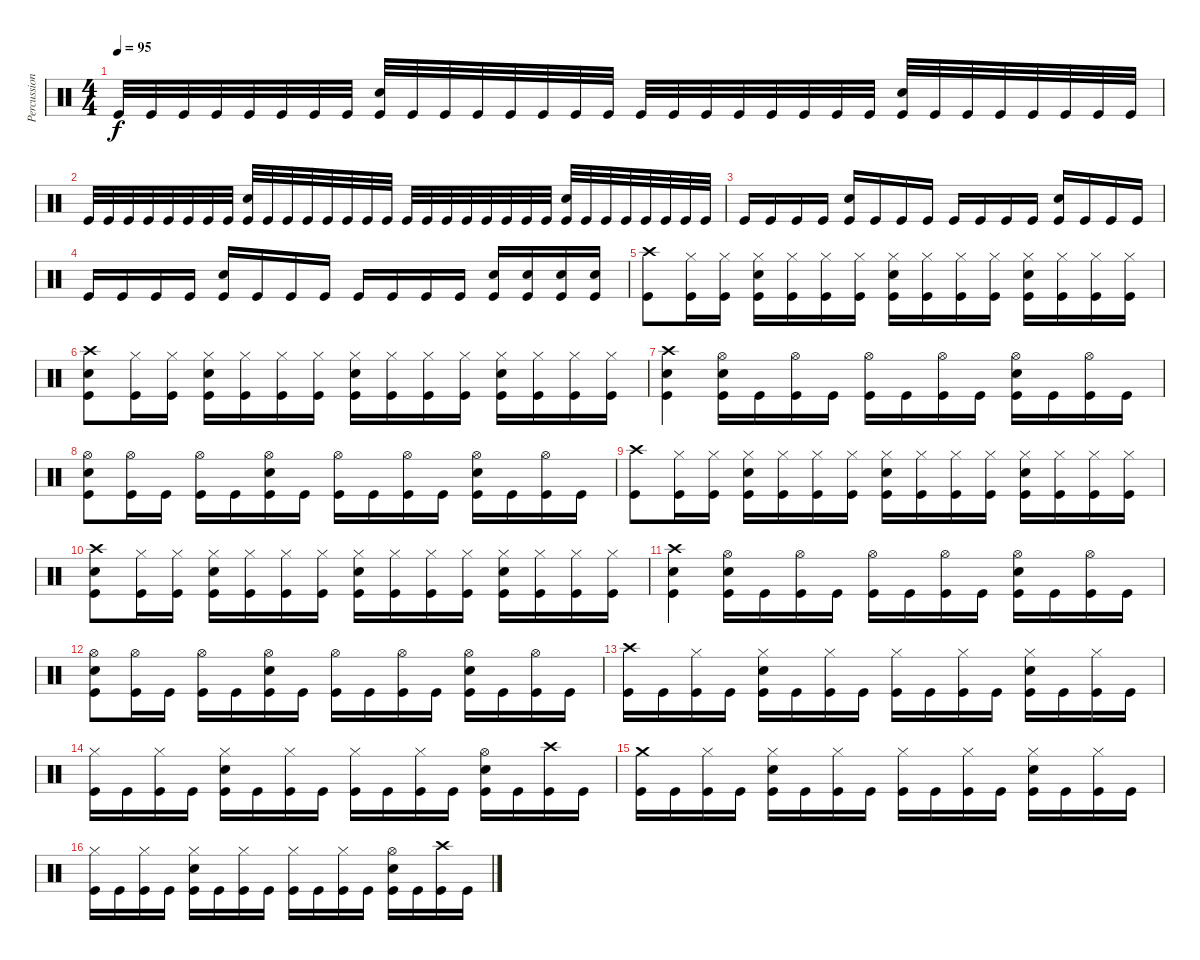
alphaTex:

\track ("Percussion" "Percussion") {instrument percussion}
\staff {score}
\articulation defaults
\ts (4 4)
\tempo 95
\clef neutral
\ks c "Kick (hit)".32{dy f} "Kick (hit)".32 "Kick (hit)".32 "Kick (hit)".32 "Kick (hit)".32 "Kick (hit)".32 "Kick (hit)".32 "Kick (hit)".32
("Electric Snare (hit)" "Kick (hit)").32 "Kick (hit)".32 "Kick (hit)".32 "Kick (hit)".32 "Kick (hit)".32 "Kick (hit)".32 "Kick (hit)".32 "Kick (hit)".32 "Kick (hit)".32 "Kick (hit)".32 "Kick (hit)".32 "Kick (hit)".32 "Kick (hit)".32 "Kick (hit)".32 "Kick (hit)".32 "Kick (hit)".32 ("Electric Snare (hit)" "Kick (hit)").32 "Kick (hit)".32 "Kick (hit)".32 "Kick (hit)".32 "Kick (hit)".32 "Kick (hit)".32 "Kick (hit)".32 "Kick (hit)".32 |
"Kick (hit)".32 "Kick (hit)".32 "Kick (hit)".32 "Kick (hit)".32 "Kick (hit)".32 "Kick (hit)".32 "Kick (hit)".32 "Kick (hit)".32 ("Electric Snare (hit)" "Kick (hit)").32 "Kick (hit)".32 "Kick (hit)".32 "Kick (hit)".32 "Kick (hit)".32 "Kick (hit)".32 "Kick (hit)".32 "Kick (hit)".32 "Kick (hit)".32 "Kick (hit)".32 "Kick (hit)".32 "Kick (hit)".32 "Kick (hit)".32 "Kick (hit)".32 "Kick (hit)".32 "Kick (hit)".32 ("Electric Snare (hit)" "Kick (hit)").32 "Kick (hit)".32 "Kick (hit)".32 "Kick (hit)".32 "Kick (hit)".32 "Kick (hit)".32 "Kick (hit)".32 "Kick (hit)".32 |
"Kick (hit)".16 "Kick (hit)".16 "Kick (hit)".16 "Kick (hit)".16 ("Electric Snare (hit)" "Kick (hit)").16 "Kick (hit)".16 "Kick (hit)".16 "Kick (hit)".16 "Kick (hit)".16 "Kick (hit)".16 "Kick (hit)".16 "Kick (hit)".16 ("Electric Snare (hit)" "Kick (hit)").16 "Kick (hit)".16 "Kick (hit)".16 "Kick (hit)".16 |
"Kick (hit)".16 "Kick (hit)".16 "Kick (hit)".16 "Kick (hit)".16 ("Electric Snare (hit)" "Kick (hit)").16 "Kick (hit)".16 "Kick (hit)".16 "Kick (hit)".16 "Kick (hit)".16 "Kick (hit)".16 "Kick (hit)".16 "Kick (hit)".16 ("Electric Snare (hit)" "Kick (hit)").16 ("Electric Snare (hit)" "Kick (hit)").16 ("Electric Snare (hit)" "Kick (hit)").16 ("Electric Snare (hit)" "Kick (hit)").16 |
("Crash high (hit)" "Kick (hit)").8 ("Hi-Hat (closed)" "Kick (hit)").16 ("Hi-Hat (closed)" "Kick (hit)").16 ("Hi-Hat (closed)" "Electric Snare (hit)" "Kick (hit)").16 ("Hi-Hat (closed)" "Kick (hit)").16 ("Hi-Hat (closed)" "Kick (hit)").16 ("Hi-Hat (closed)" "Kick (hit)").16 ("Hi-Hat (closed)" "Electric Snare (hit)" "Kick (hit)").16 ("Hi-Hat (closed)" "Kick (hit)").16 ("Hi-Hat (closed)" "Kick (hit)").16 ("Hi-Hat (closed)" "Kick (hit)").16 ("Hi-Hat (closed)" "Electric Snare (hit)" "Kick (hit)").16 ("Hi-Hat (closed)" "Kick (hit)").16 ("Hi-Hat (closed)" "Kick (hit)").16 ("Hi-Hat (closed)" "Kick (hit)").16 |
("Crash high (hit)" "Electric Snare (hit)" "Kick (hit)").8 ("Hi-Hat (closed)" "Kick (hit)").16 ("Hi-Hat (closed)" "Kick (hit)").16 ("Hi-Hat (closed)" "Electric Snare (hit)" "Kick (hit)").16 ("Hi-Hat (closed)" "Kick (hit)").16 ("Hi-Hat (closed)" "Kick (hit)").16 ("Hi-Hat (closed)" "Kick (hit)").16 ("Hi-Hat (closed)" "Electric Snare (hit)" "Kick (hit)").16 ("Hi-Hat (closed)" "Kick (hit)").16 ("Hi-Hat (closed)" "Kick (hit)").16 ("Hi-Hat (closed)" "Kick (hit)").16 ("Hi-Hat (closed)" "Electric Snare (hit)" "Kick (hit)").16 ("Hi-Hat (closed)" "Kick (hit)").16 ("Hi-Hat (closed)" "Kick (hit)").16 ("Hi-Hat (closed)" "Kick (hit)").16 |
("Crash high (hit)" "Electric Snare (hit)" "Kick (hit)").4 ("Hi-Hat (open)" "Electric Snare (hit)" "Kick (hit)").16 "Kick (hit)".16 ("Hi-Hat (open)" "Kick (hit)").16 "Kick (hit)".16 ("Hi-Hat (open)" "Kick (hit)").16 "Kick (hit)".16 ("Hi-Hat (open)" "Kick (hit)").16 "Kick (hit)".16 ("Hi-Hat (open)" "Electric Snare (hit)" "Kick (hit)").16 "Kick (hit)".16 ("Hi-Hat (open)" "Kick (hit)").16 "Kick (hit)".16 |
("Hi-Hat (open)" "Electric Snare (hit)" "Kick (hit)").8 ("Hi-Hat (open)" "Kick (hit)").16 "Kick (hit)".16 ("Hi-Hat (open)" "Kick (hit)").16 "Kick (hit)".16 ("Hi-Hat (open)" "Electric Snare (hit)" "Kick (hit)").16 "Kick (hit)".16 ("Hi-Hat (open)" "Kick (hit)").16 "Kick (hit)".16 ("Hi-Hat (open)" "Kick (hit)").16 "Kick (hit)".16 ("Hi-Hat (open)" "Electric Snare (hit)" "Kick (hit)").16 "Kick (hit)".16 ("Hi-Hat (open)" "Kick (hit)").16 "Kick (hit)".16 |
("Crash high (hit)" "Kick (hit)").8 ("Hi-Hat (closed)" "Kick (hit)").16 ("Hi-Hat (closed)" "Kick (hit)").16 ("Hi-Hat (closed)" "Electric Snare (hit)" "Kick (hit)").16 ("Hi-Hat (closed)" "Kick (hit)").16 ("Hi-Hat (closed)" "Kick (hit)").16 ("Hi-Hat (closed)" "Kick (hit)").16 ("Hi-Hat (closed)" "Electric Snare (hit)" "Kick (hit)").16 ("Hi-Hat (closed)" "Kick (hit)").16 ("Hi-Hat (closed)" "Kick (hit)").16 ("Hi-Hat (closed)" "Kick (hit)").16 ("Hi-Hat (closed)" "Electric Snare (hit)" "Kick (hit)").16 ("Hi-Hat (closed)" "Kick (hit)").16 ("Hi-Hat (closed)" "Kick (hit)").16 ("Hi-Hat (closed)" "Kick (hit)").16 |
("Crash high (hit)" "Electric Snare (hit)" "Kick (hit)").8 ("Hi-Hat (closed)" "Kick (hit)").16 ("Hi-Hat (closed)" "Kick (hit)").16 ("Hi-Hat (closed)" "Electric Snare (hit)" "Kick (hit)").16 ("Hi-Hat (closed)" "Kick (hit)").16 ("Hi-Hat (closed)" "Kick (hit)").16 ("Hi-Hat (closed)" "Kick (hit)").16 ("Hi-Hat (closed)" "Electric Snare (hit)" "Kick (hit)").16 ("Hi-Hat (closed)" "Kick (hit)").16 ("Hi-Hat (closed)" "Kick (hit)").16 ("Hi-Hat (closed)" "Kick (hit)").16 ("Hi-Hat (closed)" "Electric Snare (hit)" "Kick (hit)").16 ("Hi-Hat (closed)" "Kick (hit)").16 ("Hi-Hat (closed)" "Kick (hit)").16 ("Hi-Hat (closed)" "Kick (hit)").16 |
("Crash high (hit)" "Electric Snare (hit)" "Kick (hit)").4 ("Hi-Hat (open)" "Electric Snare (hit)" "Kick (hit)").16 "Kick (hit)".16 ("Hi-Hat (open)" "Kick (hit)").16 "Kick (hit)".16 ("Hi-Hat (open)" "Kick (hit)").16 "Kick (hit)".16 ("Hi-Hat (open)" "Kick (hit)").16 "Kick (hit)".16 ("Hi-Hat (open)" "Electric Snare (hit)" "Kick (hit)").16 "Kick (hit)".16 ("Hi-Hat (open)" "Kick (hit)").16 "Kick (hit)".16 |
("Hi-Hat (open)" "Electric Snare (hit)" "Kick (hit)").8 ("Hi-Hat (open)" "Kick (hit)").16 "Kick (hit)".16 ("Hi-Hat (open)" "Kick (hit)").16 "Kick (hit)".16 ("Hi-Hat (open)" "Electric Snare (hit)" "Kick (hit)").16 "Kick (hit)".16 ("Hi-Hat (open)" "Kick (hit)").16 "Kick (hit)".16 ("Hi-Hat (open)" "Kick (hit)").16 "Kick (hit)".16 ("Hi-Hat (open)" "Electric Snare (hit)" "Kick (hit)").16 "Kick (hit)".16 ("Hi-Hat (open)" "Kick (hit)").16 "Kick (hit)".16 |
("Crash high (hit)" "Kick (hit)").16 "Kick (hit)".16 ("Hi-Hat (closed)" "Kick (hit)").16 "Kick (hit)".16 ("Hi-Hat (closed)" "Electric Snare (hit)" "Kick (hit)").16 "Kick (hit)".16 ("Hi-Hat (closed)" "Kick (hit)").16 "Kick (hit)".16 ("Hi-Hat (closed)" "Kick (hit)").16 "Kick (hit)".16 ("Hi-Hat (closed)" "Kick (hit)").16 "Kick (hit)".16 ("Hi-Hat (closed)" "Electric Snare (hit)" "Kick (hit)").16 "Kick (hit)".16 ("Hi-Hat (closed)" "Kick (hit)").16 "Kick (hit)".16 |
("Hi-Hat (closed)" "Kick (hit)").16 "Kick (hit)".16 ("Hi-Hat (closed)" "Kick (hit)").16 "Kick (hit)".16 ("Hi-Hat (closed)" "Electric Snare (hit)" "Kick (hit)").16 "Kick (hit)".16 ("Hi-Hat (closed)" "Kick (hit)").16 "Kick (hit)".16 ("Hi-Hat (closed)" "Kick (hit)").16 "Kick (hit)".16 ("Hi-Hat (closed)" "Kick (hit)").16 "Kick (hit)".16 ("Hi-Hat (open)" "Electric Snare (hit)" "Kick (hit)").16 "Kick (hit)".16 ("Crash high (hit)" "Kick (hit)").16 "Kick (hit)".16 |
("Crash medium (hit)" "Kick (hit)").16 "Kick (hit)".16 ("Hi-Hat (closed)" "Kick (hit)").16 "Kick (hit)".16 ("Hi-Hat (closed)" "Electric Snare (hit)" "Kick (hit)").16 "Kick (hit)".16 ("Hi-Hat (closed)" "Kick (hit)").16 "Kick (hit)".16 ("Hi-Hat (closed)" "Kick (hit)").16 "Kick (hit)".16 ("Hi-Hat (closed)" "Kick (hit)").16 "Kick (hit)".16 ("Hi-Hat (closed)" "Electric Snare (hit)" "Kick (hit)").16 "Kick (hit)".16 ("Hi-Hat (closed)" "Kick (hit)").16 "Kick (hit)".16 |
("Hi-Hat (closed)" "Kick (hit)").16 "Kick (hit)".16 ("Hi-Hat (closed)" "Kick (hit)").16 "Kick (hit)".16 ("Hi-Hat (closed)" "Electric Snare (hit)" "Kick (hit)").16 "Kick (hit)".16 ("Hi-Hat (closed)" "Kick (hit)").16 "Kick (hit)".16 ("Hi-Hat (closed)" "Kick (hit)").16 "Kick (hit)".16 ("Hi-Hat (closed)" "Kick (hit)").16 "Kick (hit)".16 ("Hi-Hat (open)" "Electric Snare (hit)" "Kick (hit)").16 "Kick (hit)".16 ("Crash high (hit)" "Kick (hit)").16 "Kick (hit)".16
